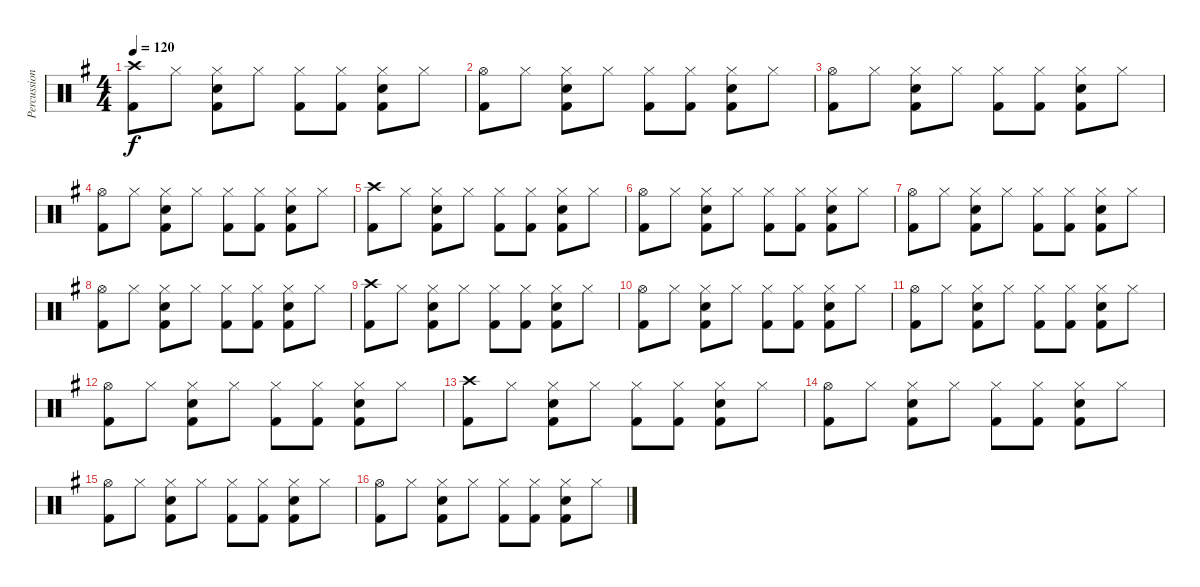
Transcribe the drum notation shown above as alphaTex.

\track ("Percussion" "Percussion") {instrument percussion}
\staff {score}
\articulation defaults
\ts (4 4)
\tempo 120
\clef neutral
\ks g
("Kick (hit) 2" "Crash high (hit)").8{dy f} "Hi-Hat (closed)".8 ("Kick (hit) 2" "Electric Snare (hit)" "Hi-Hat (closed)").8 "Hi-Hat (closed)".8 ("Kick (hit) 2" "Hi-Hat (closed)").8 ("Kick (hit) 2" "Hi-Hat (closed)").8 ("Kick (hit) 2" "Electric Snare (hit)" "Hi-Hat (closed)").8 "Hi-Hat (closed)".8 |
("Kick (hit) 2" "Hi-Hat (open)").8 "Hi-Hat (closed)".8 ("Kick (hit) 2" "Electric Snare (hit)" "Hi-Hat (closed)").8 "Hi-Hat (closed)".8 ("Kick (hit) 2" "Hi-Hat (closed)").8 ("Kick (hit) 2" "Hi-Hat (closed)").8 ("Kick (hit) 2" "Electric Snare (hit)" "Hi-Hat (closed)").8 "Hi-Hat (closed)".8 |
("Kick (hit) 2" "Hi-Hat (open)").8 "Hi-Hat (closed)".8 ("Kick (hit) 2" "Electric Snare (hit)" "Hi-Hat (closed)").8 "Hi-Hat (closed)".8 ("Kick (hit) 2" "Hi-Hat (closed)").8 ("Kick (hit) 2" "Hi-Hat (closed)").8 ("Kick (hit) 2" "Electric Snare (hit)" "Hi-Hat (closed)").8 "Hi-Hat (closed)".8 |
("Kick (hit) 2" "Hi-Hat (open)").8 "Hi-Hat (closed)".8 ("Kick (hit) 2" "Electric Snare (hit)" "Hi-Hat (closed)").8 "Hi-Hat (closed)".8 ("Kick (hit) 2" "Hi-Hat (closed)").8 ("Kick (hit) 2" "Hi-Hat (closed)").8 ("Kick (hit) 2" "Electric Snare (hit)" "Hi-Hat (closed)").8 "Hi-Hat (closed)".8 |
("Kick (hit) 2" "Crash high (hit)").8 "Hi-Hat (closed)".8 ("Kick (hit) 2" "Electric Snare (hit)" "Hi-Hat (closed)").8 "Hi-Hat (closed)".8 ("Kick (hit) 2" "Hi-Hat (closed)").8 ("Kick (hit) 2" "Hi-Hat (closed)").8 ("Kick (hit) 2" "Electric Snare (hit)" "Hi-Hat (closed)").8 "Hi-Hat (closed)".8 |
("Kick (hit) 2" "Hi-Hat (open)").8 "Hi-Hat (closed)".8 ("Kick (hit) 2" "Electric Snare (hit)" "Hi-Hat (closed)").8 "Hi-Hat (closed)".8 ("Kick (hit) 2" "Hi-Hat (closed)").8 ("Kick (hit) 2" "Hi-Hat (closed)").8 ("Kick (hit) 2" "Electric Snare (hit)" "Hi-Hat (closed)").8 "Hi-Hat (closed)".8 |
("Kick (hit) 2" "Hi-Hat (open)").8 "Hi-Hat (closed)".8 ("Kick (hit) 2" "Electric Snare (hit)" "Hi-Hat (closed)").8 "Hi-Hat (closed)".8 ("Kick (hit) 2" "Hi-Hat (closed)").8 ("Kick (hit) 2" "Hi-Hat (closed)").8 ("Kick (hit) 2" "Electric Snare (hit)" "Hi-Hat (closed)").8 "Hi-Hat (closed)".8 |
("Kick (hit) 2" "Hi-Hat (open)").8 "Hi-Hat (closed)".8 ("Kick (hit) 2" "Electric Snare (hit)" "Hi-Hat (closed)").8 "Hi-Hat (closed)".8 ("Kick (hit) 2" "Hi-Hat (closed)").8 ("Kick (hit) 2" "Hi-Hat (closed)").8 ("Kick (hit) 2" "Electric Snare (hit)" "Hi-Hat (closed)").8 "Hi-Hat (closed)".8 |
("Kick (hit) 2" "Crash high (hit)").8 "Hi-Hat (closed)".8 ("Kick (hit) 2" "Electric Snare (hit)" "Hi-Hat (closed)").8 "Hi-Hat (closed)".8 ("Kick (hit) 2" "Hi-Hat (closed)").8 ("Kick (hit) 2" "Hi-Hat (closed)").8 ("Kick (hit) 2" "Electric Snare (hit)" "Hi-Hat (closed)").8 "Hi-Hat (closed)".8 |
("Kick (hit) 2" "Hi-Hat (open)").8 "Hi-Hat (closed)".8 ("Kick (hit) 2" "Electric Snare (hit)" "Hi-Hat (closed)").8 "Hi-Hat (closed)".8 ("Kick (hit) 2" "Hi-Hat (closed)").8 ("Kick (hit) 2" "Hi-Hat (closed)").8 ("Kick (hit) 2" "Electric Snare (hit)" "Hi-Hat (closed)").8 "Hi-Hat (closed)".8 |
("Kick (hit) 2" "Hi-Hat (open)").8 "Hi-Hat (closed)".8 ("Kick (hit) 2" "Electric Snare (hit)" "Hi-Hat (closed)").8 "Hi-Hat (closed)".8 ("Kick (hit) 2" "Hi-Hat (closed)").8 ("Kick (hit) 2" "Hi-Hat (closed)").8 ("Kick (hit) 2" "Electric Snare (hit)" "Hi-Hat (closed)").8 "Hi-Hat (closed)".8 |
("Kick (hit) 2" "Hi-Hat (open)").8 "Hi-Hat (closed)".8 ("Kick (hit) 2" "Electric Snare (hit)" "Hi-Hat (closed)").8 "Hi-Hat (closed)".8 ("Kick (hit) 2" "Hi-Hat (closed)").8 ("Kick (hit) 2" "Hi-Hat (closed)").8 ("Kick (hit) 2" "Electric Snare (hit)" "Hi-Hat (closed)").8 "Hi-Hat (closed)".8 |
("Kick (hit) 2" "Crash high (hit)").8 "Hi-Hat (closed)".8 ("Kick (hit) 2" "Electric Snare (hit)" "Hi-Hat (closed)").8 "Hi-Hat (closed)".8 ("Kick (hit) 2" "Hi-Hat (closed)").8 ("Kick (hit) 2" "Hi-Hat (closed)").8 ("Kick (hit) 2" "Electric Snare (hit)" "Hi-Hat (closed)").8 "Hi-Hat (closed)".8 |
("Kick (hit) 2" "Hi-Hat (open)").8 "Hi-Hat (closed)".8 ("Kick (hit) 2" "Electric Snare (hit)" "Hi-Hat (closed)").8 "Hi-Hat (closed)".8 ("Kick (hit) 2" "Hi-Hat (closed)").8 ("Kick (hit) 2" "Hi-Hat (closed)").8 ("Kick (hit) 2" "Electric Snare (hit)" "Hi-Hat (closed)").8 "Hi-Hat (closed)".8 |
("Kick (hit) 2" "Hi-Hat (open)").8 "Hi-Hat (closed)".8 ("Kick (hit) 2" "Electric Snare (hit)" "Hi-Hat (closed)").8 "Hi-Hat (closed)".8 ("Kick (hit) 2" "Hi-Hat (closed)").8 ("Kick (hit) 2" "Hi-Hat (closed)").8 ("Kick (hit) 2" "Electric Snare (hit)" "Hi-Hat (closed)").8 "Hi-Hat (closed)".8 |
("Kick (hit) 2" "Hi-Hat (open)").8 "Hi-Hat (closed)".8 ("Kick (hit) 2" "Electric Snare (hit)" "Hi-Hat (closed)").8 "Hi-Hat (closed)".8 ("Kick (hit) 2" "Hi-Hat (closed)").8 ("Kick (hit) 2" "Hi-Hat (closed)").8 ("Kick (hit) 2" "Electric Snare (hit)" "Hi-Hat (closed)").8 "Hi-Hat (closed)".8
